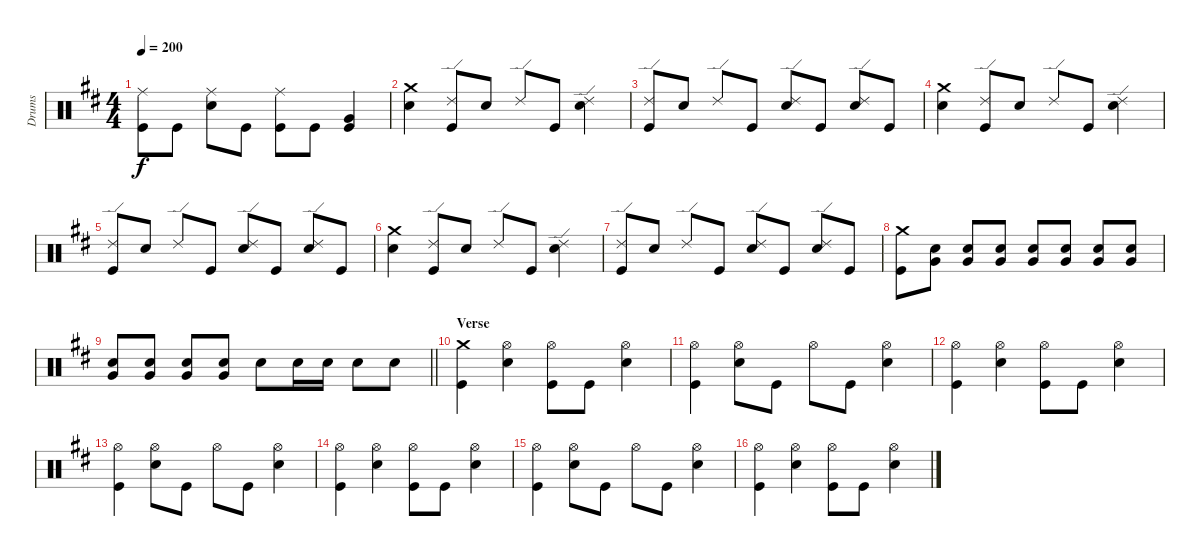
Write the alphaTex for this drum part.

\track ("Drums" "Drums") {instrument percussion}
\staff {score}
\articulation defaults
\ts (4 4)
\tempo 200
\clef neutral
\ks d
("Kick (hit)" "Ride (middle)").8{dy f} "Kick (hit)".8 ("Snare (hit) 2" "Ride (middle)").8 "Kick (hit)".8 ("Kick (hit)" "Ride (middle)").8 "Kick (hit)".8 ("Kick (hit)" "Very Low Tom (hit)").4 |
("Snare (hit) 2" "Crash medium (hit)").4 ("Kick (hit)" "Ride (edge) 2").8 "Snare (hit) 2".8 "Ride (edge) 2".8 "Kick (hit)".8 ("Snare (hit) 2" "Ride (edge) 2").4 |
("Kick (hit)" "Ride (edge) 2").8 "Snare (hit) 2".8 "Ride (edge) 2".8 "Kick (hit)".8 ("Snare (hit) 2" "Ride (edge) 2").8 "Kick (hit)".8 ("Snare (hit) 2" "Ride (edge) 2").8 "Kick (hit)".8 |
("Snare (hit) 2" "Crash medium (hit)").4 ("Kick (hit)" "Ride (edge) 2").8 "Snare (hit) 2".8 "Ride (edge) 2".8 "Kick (hit)".8 ("Snare (hit) 2" "Ride (edge) 2").4 |
("Kick (hit)" "Ride (edge) 2").8 "Snare (hit) 2".8 "Ride (edge) 2".8 "Kick (hit)".8 ("Snare (hit) 2" "Ride (edge) 2").8 "Kick (hit)".8 ("Snare (hit) 2" "Ride (edge) 2").8 "Kick (hit)".8 |
("Snare (hit) 2" "Crash medium (hit)").4 ("Kick (hit)" "Ride (edge) 2").8 "Snare (hit) 2".8 "Ride (edge) 2".8 "Kick (hit)".8 ("Snare (hit) 2" "Ride (edge) 2").4 |
("Kick (hit)" "Ride (edge) 2").8 "Snare (hit) 2".8 "Ride (edge) 2".8 "Kick (hit)".8 ("Snare (hit) 2" "Ride (edge) 2").8 "Kick (hit)".8 ("Snare (hit) 2" "Ride (edge) 2").8 "Kick (hit)".8 |
("Kick (hit)" "Crash medium (hit)").8 ("Snare (hit) 2" "Very Low Tom (hit)").8 ("Snare (hit) 2" "Very Low Tom (hit)").8 ("Snare (hit) 2" "Very Low Tom (hit)").8 ("Snare (hit) 2" "Very Low Tom (hit)").8 ("Snare (hit) 2" "Very Low Tom (hit)").8 ("Snare (hit) 2" "Very Low Tom (hit)").8 ("Snare (hit) 2" "Very Low Tom (hit)").8 |
\barLineRight lightlight
("Snare (hit) 2" "Very Low Tom (hit)").8 ("Snare (hit) 2" "Very Low Tom (hit)").8 ("Snare (hit) 2" "Very Low Tom (hit)").8 ("Snare (hit) 2" "Very Low Tom (hit)").8 "Snare (hit) 2".8 "Snare (hit) 2".16 "Snare (hit) 2".16 "Snare (hit) 2".8 "Snare (hit) 2".8 |
\section ("" "Verse")
("Kick (hit)" "Crash medium (hit)").4 ("Snare (hit) 2" "Hi-Hat (open)").4 ("Kick (hit)" "Hi-Hat (open)").8 "Kick (hit)".8 ("Snare (hit) 2" "Hi-Hat (open)").4 |
("Kick (hit)" "Hi-Hat (open)").4 ("Snare (hit) 2" "Hi-Hat (open)").8 "Kick (hit)".8 "Hi-Hat (open)".8 "Kick (hit)".8 ("Snare (hit) 2" "Hi-Hat (open)").4 |
("Kick (hit)" "Hi-Hat (open)").4 ("Snare (hit) 2" "Hi-Hat (open)").4 ("Kick (hit)" "Hi-Hat (open)").8 "Kick (hit)".8 ("Snare (hit) 2" "Hi-Hat (open)").4 |
("Kick (hit)" "Hi-Hat (open)").4 ("Snare (hit) 2" "Hi-Hat (open)").8 "Kick (hit)".8 "Hi-Hat (open)".8 "Kick (hit)".8 ("Snare (hit) 2" "Hi-Hat (open)").4 |
("Kick (hit)" "Hi-Hat (open)").4 ("Snare (hit) 2" "Hi-Hat (open)").4 ("Kick (hit)" "Hi-Hat (open)").8 "Kick (hit)".8 ("Snare (hit) 2" "Hi-Hat (open)").4 |
("Kick (hit)" "Hi-Hat (open)").4 ("Snare (hit) 2" "Hi-Hat (open)").8 "Kick (hit)".8 "Hi-Hat (open)".8 "Kick (hit)".8 ("Snare (hit) 2" "Hi-Hat (open)").4 |
("Kick (hit)" "Hi-Hat (open)").4 ("Snare (hit) 2" "Hi-Hat (open)").4 ("Kick (hit)" "Hi-Hat (open)").8 "Kick (hit)".8 ("Snare (hit) 2" "Hi-Hat (open)").4
